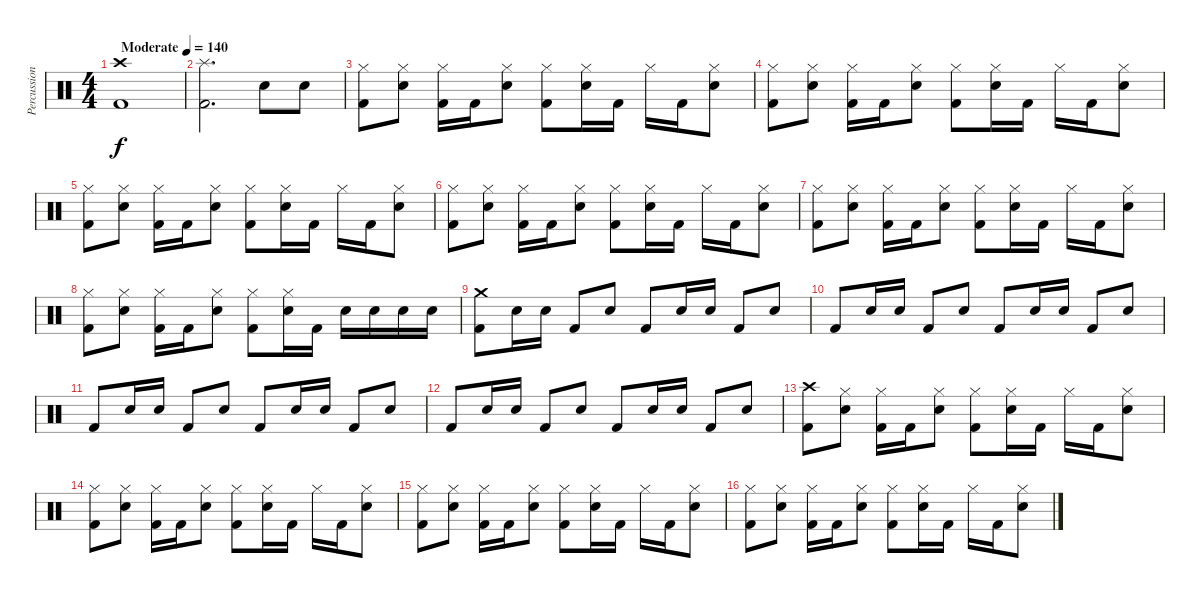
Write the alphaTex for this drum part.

\track ("Percussion" "Percussion") {instrument percussion}
\staff {score}
\articulation defaults
\ts (4 4)
\tempo (140 "Moderate")
\clef neutral
\ks c
("Crash high (hit)" "Kick (hit) 2").1{dy f} |
("Splash (hit)" "Kick (hit) 2").2{d} "Snare (hit) 2".8 "Snare (hit) 2".8 |
("Hi-Hat (closed)" "Kick (hit) 2").8 ("Hi-Hat (closed)" "Snare (hit) 2").8 ("Hi-Hat (closed)" "Kick (hit) 2").16 "Kick (hit) 2".16 ("Hi-Hat (closed)" "Snare (hit) 2").8 ("Hi-Hat (closed)" "Kick (hit) 2").8 ("Hi-Hat (closed)" "Snare (hit) 2").16 "Kick (hit) 2".16 "Hi-Hat (closed)".16 "Kick (hit) 2".16 ("Hi-Hat (closed)" "Snare (hit) 2").8 |
("Hi-Hat (closed)" "Kick (hit) 2").8 ("Hi-Hat (closed)" "Snare (hit) 2").8 ("Hi-Hat (closed)" "Kick (hit) 2").16 "Kick (hit) 2".16 ("Hi-Hat (closed)" "Snare (hit) 2").8 ("Hi-Hat (closed)" "Kick (hit) 2").8 ("Hi-Hat (closed)" "Snare (hit) 2").16 "Kick (hit) 2".16 "Hi-Hat (closed)".16 "Kick (hit) 2".16 ("Hi-Hat (closed)" "Snare (hit) 2").8 |
("Hi-Hat (closed)" "Kick (hit) 2").8 ("Hi-Hat (closed)" "Snare (hit) 2").8 ("Hi-Hat (closed)" "Kick (hit) 2").16 "Kick (hit) 2".16 ("Hi-Hat (closed)" "Snare (hit) 2").8 ("Hi-Hat (closed)" "Kick (hit) 2").8 ("Hi-Hat (closed)" "Snare (hit) 2").16 "Kick (hit) 2".16 "Hi-Hat (closed)".16 "Kick (hit) 2".16 ("Hi-Hat (closed)" "Snare (hit) 2").8 |
("Hi-Hat (closed)" "Kick (hit) 2").8 ("Hi-Hat (closed)" "Snare (hit) 2").8 ("Hi-Hat (closed)" "Kick (hit) 2").16 "Kick (hit) 2".16 ("Hi-Hat (closed)" "Snare (hit) 2").8 ("Hi-Hat (closed)" "Kick (hit) 2").8 ("Hi-Hat (closed)" "Snare (hit) 2").16 "Kick (hit) 2".16 "Hi-Hat (closed)".16 "Kick (hit) 2".16 ("Hi-Hat (closed)" "Snare (hit) 2").8 |
("Hi-Hat (closed)" "Kick (hit) 2").8 ("Hi-Hat (closed)" "Snare (hit) 2").8 ("Hi-Hat (closed)" "Kick (hit) 2").16 "Kick (hit) 2".16 ("Hi-Hat (closed)" "Snare (hit) 2").8 ("Hi-Hat (closed)" "Kick (hit) 2").8 ("Hi-Hat (closed)" "Snare (hit) 2").16 "Kick (hit) 2".16 "Hi-Hat (closed)".16 "Kick (hit) 2".16 ("Hi-Hat (closed)" "Snare (hit) 2").8 |
("Hi-Hat (closed)" "Kick (hit) 2").8 ("Hi-Hat (closed)" "Snare (hit) 2").8 ("Hi-Hat (closed)" "Kick (hit) 2").16 "Kick (hit) 2".16 ("Hi-Hat (closed)" "Snare (hit) 2").8 ("Hi-Hat (closed)" "Kick (hit) 2").8 ("Hi-Hat (closed)" "Snare (hit) 2").16 "Kick (hit) 2".16 "Snare (hit) 2".16 "Snare (hit) 2".16 "Snare (hit) 2".16 "Snare (hit) 2".16 |
("Crash medium (hit)" "Kick (hit) 2").8 "Snare (hit) 2".16 "Snare (hit) 2".16 "Kick (hit) 2".8 "Snare (hit) 2".8 "Kick (hit) 2".8 "Snare (hit) 2".16 "Snare (hit) 2".16 "Kick (hit) 2".8 "Snare (hit) 2".8 |
"Kick (hit) 2".8 "Snare (hit) 2".16 "Snare (hit) 2".16 "Kick (hit) 2".8 "Snare (hit) 2".8 "Kick (hit) 2".8 "Snare (hit) 2".16 "Snare (hit) 2".16 "Kick (hit) 2".8 "Snare (hit) 2".8 |
"Kick (hit) 2".8 "Snare (hit) 2".16 "Snare (hit) 2".16 "Kick (hit) 2".8 "Snare (hit) 2".8 "Kick (hit) 2".8 "Snare (hit) 2".16 "Snare (hit) 2".16 "Kick (hit) 2".8 "Snare (hit) 2".8 |
"Kick (hit) 2".8 "Snare (hit) 2".16 "Snare (hit) 2".16 "Kick (hit) 2".8 "Snare (hit) 2".8 "Kick (hit) 2".8 "Snare (hit) 2".16 "Snare (hit) 2".16 "Kick (hit) 2".8 "Snare (hit) 2".8 |
("Crash high (hit)" "Kick (hit) 2").8 ("Hi-Hat (closed)" "Snare (hit) 2").8 ("Hi-Hat (closed)" "Kick (hit) 2").16 "Kick (hit) 2".16 ("Hi-Hat (closed)" "Snare (hit) 2").8 ("Hi-Hat (closed)" "Kick (hit) 2").8 ("Hi-Hat (closed)" "Snare (hit) 2").16 "Kick (hit) 2".16 "Hi-Hat (closed)".16 "Kick (hit) 2".16 ("Hi-Hat (closed)" "Snare (hit) 2").8 |
("Hi-Hat (closed)" "Kick (hit) 2").8 ("Hi-Hat (closed)" "Snare (hit) 2").8 ("Hi-Hat (closed)" "Kick (hit) 2").16 "Kick (hit) 2".16 ("Hi-Hat (closed)" "Snare (hit) 2").8 ("Hi-Hat (closed)" "Kick (hit) 2").8 ("Hi-Hat (closed)" "Snare (hit) 2").16 "Kick (hit) 2".16 "Hi-Hat (closed)".16 "Kick (hit) 2".16 ("Hi-Hat (closed)" "Snare (hit) 2").8 |
("Hi-Hat (closed)" "Kick (hit) 2").8 ("Hi-Hat (closed)" "Snare (hit) 2").8 ("Hi-Hat (closed)" "Kick (hit) 2").16 "Kick (hit) 2".16 ("Hi-Hat (closed)" "Snare (hit) 2").8 ("Hi-Hat (closed)" "Kick (hit) 2").8 ("Hi-Hat (closed)" "Snare (hit) 2").16 "Kick (hit) 2".16 "Hi-Hat (closed)".16 "Kick (hit) 2".16 ("Hi-Hat (closed)" "Snare (hit) 2").8 |
("Hi-Hat (closed)" "Kick (hit) 2").8 ("Hi-Hat (closed)" "Snare (hit) 2").8 ("Hi-Hat (closed)" "Kick (hit) 2").16 "Kick (hit) 2".16 ("Hi-Hat (closed)" "Snare (hit) 2").8 ("Hi-Hat (closed)" "Kick (hit) 2").8 ("Hi-Hat (closed)" "Snare (hit) 2").16 "Kick (hit) 2".16 "Hi-Hat (closed)".16 "Kick (hit) 2".16 ("Hi-Hat (closed)" "Snare (hit) 2").8
